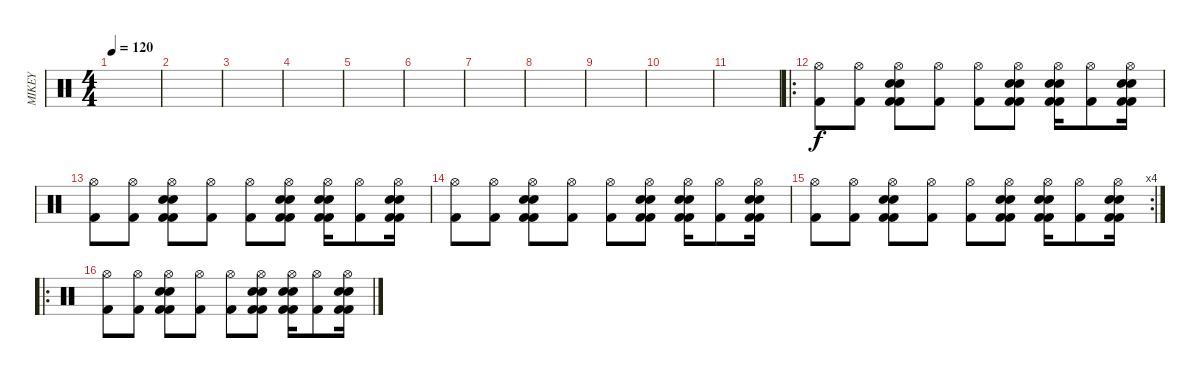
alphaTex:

\track ("MIKEY" "MIKEY") {instrument percussion}
\staff {score}
\articulation defaults
\ts (4 4)
\tempo 120
\clef neutral
\ks c
|
|
|
|
|
|
|
|
|
|
|
\ro
("Kick (hit) 2" "Hi-Hat (open)").8 ("Kick (hit) 2" "Hi-Hat (open)").8 ("Snare (hit) 2" "Kick (hit) 2" "Snare (hit) 2" "Kick (hit) 2" "Hi-Hat (open)").8 ("Kick (hit) 2" "Hi-Hat (open)").8 ("Kick (hit) 2" "Hi-Hat (open)").8 ("Snare (hit) 2" "Snare (hit) 2" "Kick (hit) 2" "Kick (hit) 2" "Hi-Hat (open)").8 ("Snare (hit) 2" "Snare (hit) 2" "Kick (hit) 2" "Kick (hit) 2" "Hi-Hat (open)").16 ("Kick (hit) 2" "Hi-Hat (open)").8 ("Snare (hit) 2" "Snare (hit) 2" "Kick (hit) 2" "Kick (hit) 2" "Hi-Hat (open)").16 |
("Kick (hit) 2" "Hi-Hat (open)").8 ("Kick (hit) 2" "Hi-Hat (open)").8 ("Snare (hit) 2" "Kick (hit) 2" "Snare (hit) 2" "Kick (hit) 2" "Hi-Hat (open)").8 ("Kick (hit) 2" "Hi-Hat (open)").8 ("Kick (hit) 2" "Hi-Hat (open)").8 ("Snare (hit) 2" "Snare (hit) 2" "Kick (hit) 2" "Kick (hit) 2" "Hi-Hat (open)").8 ("Snare (hit) 2" "Snare (hit) 2" "Kick (hit) 2" "Kick (hit) 2" "Hi-Hat (open)").16 ("Kick (hit) 2" "Hi-Hat (open)").8 ("Snare (hit) 2" "Snare (hit) 2" "Kick (hit) 2" "Kick (hit) 2" "Hi-Hat (open)").16 |
("Kick (hit) 2" "Hi-Hat (open)").8 ("Kick (hit) 2" "Hi-Hat (open)").8 ("Snare (hit) 2" "Kick (hit) 2" "Snare (hit) 2" "Kick (hit) 2" "Hi-Hat (open)").8 ("Kick (hit) 2" "Hi-Hat (open)").8 ("Kick (hit) 2" "Hi-Hat (open)").8 ("Snare (hit) 2" "Snare (hit) 2" "Kick (hit) 2" "Kick (hit) 2" "Hi-Hat (open)").8 ("Snare (hit) 2" "Snare (hit) 2" "Kick (hit) 2" "Kick (hit) 2" "Hi-Hat (open)").16 ("Kick (hit) 2" "Hi-Hat (open)").8 ("Snare (hit) 2" "Snare (hit) 2" "Kick (hit) 2" "Kick (hit) 2" "Hi-Hat (open)").16 |
\rc 4
("Kick (hit) 2" "Hi-Hat (open)").8 ("Kick (hit) 2" "Hi-Hat (open)").8 ("Snare (hit) 2" "Kick (hit) 2" "Snare (hit) 2" "Kick (hit) 2" "Hi-Hat (open)").8 ("Kick (hit) 2" "Hi-Hat (open)").8 ("Kick (hit) 2" "Hi-Hat (open)").8 ("Snare (hit) 2" "Snare (hit) 2" "Kick (hit) 2" "Kick (hit) 2" "Hi-Hat (open)").8 ("Snare (hit) 2" "Snare (hit) 2" "Kick (hit) 2" "Kick (hit) 2" "Hi-Hat (open)").16 ("Kick (hit) 2" "Hi-Hat (open)").8 ("Snare (hit) 2" "Snare (hit) 2" "Kick (hit) 2" "Kick (hit) 2" "Hi-Hat (open)").16 |
\ro
("Kick (hit) 2" "Hi-Hat (open)").8 ("Kick (hit) 2" "Hi-Hat (open)").8 ("Snare (hit) 2" "Kick (hit) 2" "Snare (hit) 2" "Kick (hit) 2" "Hi-Hat (open)").8 ("Kick (hit) 2" "Hi-Hat (open)").8 ("Kick (hit) 2" "Hi-Hat (open)").8 ("Snare (hit) 2" "Snare (hit) 2" "Kick (hit) 2" "Kick (hit) 2" "Hi-Hat (open)").8 ("Snare (hit) 2" "Snare (hit) 2" "Kick (hit) 2" "Kick (hit) 2" "Hi-Hat (open)").16 ("Kick (hit) 2" "Hi-Hat (open)").8 ("Snare (hit) 2" "Snare (hit) 2" "Kick (hit) 2" "Kick (hit) 2" "Hi-Hat (open)").16
